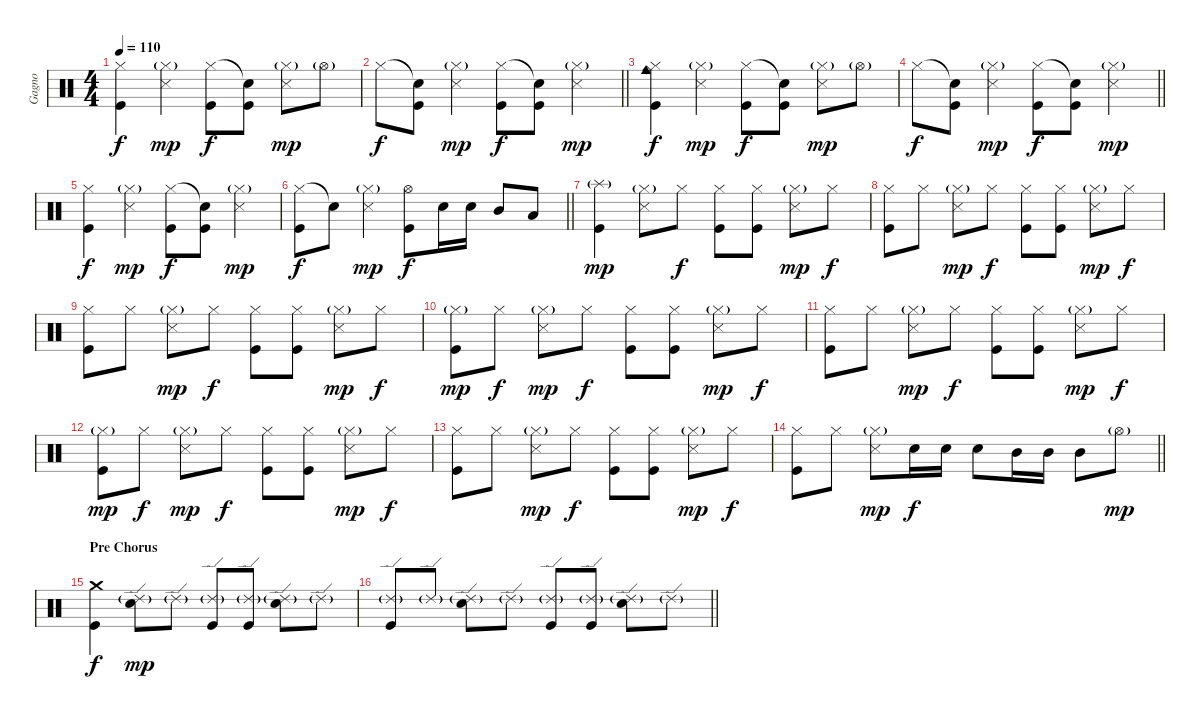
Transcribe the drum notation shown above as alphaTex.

\track ("Gagno" "Gagno") {instrument percussion}
\staff {score}
\articulation defaults
\ts (4 4)
\tempo 110
\clef neutral
\ks c
("Hi-Hat (closed)" "Kick (hit)").4{dy f} ("Hi-Hat (closed)"{g} "Snare (side stick) 3").4{dy mp} ("Hi-Hat (closed)" "Kick (hit)").8{dy f} ("Snare (hit)"{t} "Kick (hit)").8 ("Hi-Hat (closed)"{g} "Snare (side stick) 3").8{dy mp} "Hi-Hat (open)"{g}.8 |
\barLineRight lightlight "Hi-Hat (closed)".8{dy f}
("Snare (hit)"{t} "Kick (hit)").8 ("Hi-Hat (closed)"{g} "Snare (side stick) 3").4{dy mp} ("Hi-Hat (closed)" "Kick (hit)").8{dy f} ("Snare (hit)"{t} "Kick (hit)").8 ("Hi-Hat (closed)"{g} "Snare (side stick) 3").4{dy mp} |
("Hi-Hat (closed)" "Cowbell medium (hit)" "Ride (bell)" "Kick (hit)").4{dy f} ("Hi-Hat (closed)"{g} "Snare (side stick) 3").4{dy mp} ("Hi-Hat (closed)" "Kick (hit)").8{dy f} ("Snare (hit)"{t} "Kick (hit)").8 ("Hi-Hat (closed)"{g} "Snare (side stick) 3").8{dy mp} "Hi-Hat (open)"{g}.8 |
\barLineRight lightlight "Hi-Hat (closed)".8{dy f}
("Snare (hit)"{t} "Kick (hit)").8 ("Hi-Hat (closed)"{g} "Snare (side stick) 3").4{dy mp} ("Hi-Hat (closed)" "Kick (hit)").8{dy f} ("Snare (hit)"{t} "Kick (hit)").8 ("Hi-Hat (closed)"{g} "Snare (side stick) 3").4{dy mp} |
("Hi-Hat (closed)" "Kick (hit)").4{dy f} ("Hi-Hat (closed)"{g} "Snare (side stick) 3").4{dy mp} ("Hi-Hat (closed)" "Kick (hit)").8{dy f} ("Snare (hit)"{t} "Kick (hit)").8 ("Hi-Hat (closed)"{g} "Snare (side stick) 3").4{dy mp} |
\barLineRight lightlight
("Hi-Hat (closed)" "Kick (hit)").8{dy f} "Snare (hit)"{t}.8 ("Hi-Hat (closed)"{g} "Snare (side stick) 3").4{dy mp} ("Hi-Hat (open)" "Kick (hit)").8{dy f} "Snare (hit) 2".16 "Snare (hit) 2".16 "Mid Tom (hit)".8 "Low Tom (hit)".8 |
("Splash (hit)"{g} "Kick (hit)").4{dy mp} ("Hi-Hat (closed)"{g} "Snare (side stick) 3").8 "Hi-Hat (closed)".8{dy f} ("Hi-Hat (closed)" "Kick (hit)").8 ("Hi-Hat (closed)" "Kick (hit)").8 ("Hi-Hat (closed)"{g} "Snare (side stick) 3").8{dy mp} "Hi-Hat (closed)".8{dy f} |
("Hi-Hat (closed)" "Kick (hit)").8 "Hi-Hat (closed)".8 ("Hi-Hat (closed)"{g} "Snare (side stick) 3").8{dy mp} "Hi-Hat (closed)".8{dy f} ("Hi-Hat (closed)" "Kick (hit)").8 ("Hi-Hat (closed)" "Kick (hit)").8 ("Hi-Hat (closed)"{g} "Snare (side stick) 3").8{dy mp} "Hi-Hat (closed)".8{dy f} |
("Hi-Hat (closed)" "Kick (hit)").8 "Hi-Hat (closed)".8 ("Hi-Hat (closed)"{g} "Snare (side stick) 3").8{dy mp} "Hi-Hat (closed)".8{dy f} ("Hi-Hat (closed)" "Kick (hit)").8 ("Hi-Hat (closed)" "Kick (hit)").8 ("Hi-Hat (closed)"{g} "Snare (side stick) 3").8{dy mp} "Hi-Hat (closed)".8{dy f} |
("Hi-Hat (closed)"{g} "Kick (hit)").8{dy mp} "Hi-Hat (closed)".8{dy f} ("Hi-Hat (closed)"{g} "Snare (side stick) 3").8{dy mp} "Hi-Hat (closed)".8{dy f} ("Hi-Hat (closed)" "Kick (hit)").8 ("Hi-Hat (closed)" "Kick (hit)").8 ("Hi-Hat (closed)"{g} "Snare (side stick) 3").8{dy mp} "Hi-Hat (closed)".8{dy f} |
("Hi-Hat (closed)" "Kick (hit)").8 "Hi-Hat (closed)".8 ("Hi-Hat (closed)"{g} "Snare (side stick) 3").8{dy mp} "Hi-Hat (closed)".8{dy f} ("Hi-Hat (closed)" "Kick (hit)").8 ("Hi-Hat (closed)" "Kick (hit)").8 ("Hi-Hat (closed)"{g} "Snare (side stick) 3").8{dy mp} "Hi-Hat (closed)".8{dy f} |
("Hi-Hat (closed)"{g} "Kick (hit)").8{dy mp} "Hi-Hat (closed)".8{dy f} ("Hi-Hat (closed)"{g} "Snare (side stick) 3").8{dy mp} "Hi-Hat (closed)".8{dy f} ("Hi-Hat (closed)" "Kick (hit)").8 ("Hi-Hat (closed)" "Kick (hit)").8 ("Hi-Hat (closed)"{g} "Snare (side stick) 3").8{dy mp} "Hi-Hat (closed)".8{dy f} |
("Hi-Hat (closed)" "Kick (hit)").8 "Hi-Hat (closed)".8 ("Hi-Hat (closed)"{g} "Snare (side stick) 3").8{dy mp} "Hi-Hat (closed)".8{dy f} ("Hi-Hat (closed)" "Kick (hit)").8 ("Hi-Hat (closed)" "Kick (hit)").8 ("Hi-Hat (closed)"{g} "Snare (side stick) 3").8{dy mp} "Hi-Hat (closed)".8{dy f} |
\barLineRight lightlight
("Hi-Hat (closed)" "Kick (hit)").8 "Hi-Hat (closed)".8 ("Hi-Hat (closed)"{g} "Snare (side stick) 3").8{dy mp} "Snare (hit) 2".16{dy f} "Snare (hit) 2".16 "Snare (hit) 2".8 "Mid Tom (hit)".16 "Mid Tom (hit)".16 "Mid Tom (hit)".8 "Hi-Hat (open)"{g}.8{dy mp} |
\section ("" "Pre Chorus")
("Crash medium (hit)" "Kick (hit)").4{dy f} ("Ride (edge) 2"{g} "Snare (hit) 2").8{dy mp} "Ride (edge) 2"{g}.8 ("Ride (edge) 2"{g} "Kick (hit)").8 ("Ride (edge) 2"{g} "Kick (hit)").8 ("Ride (edge) 2"{g} "Snare (hit) 2").8 "Ride (edge) 2"{g}.8 |
\barLineRight lightlight
("Ride (edge) 2"{g} "Kick (hit)").8 "Ride (edge) 2"{g}.8 ("Ride (edge) 2"{g} "Snare (hit) 2").8 "Ride (edge) 2"{g}.8 ("Ride (edge) 2"{g} "Kick (hit)").8 ("Ride (edge) 2"{g} "Kick (hit)").8 ("Ride (edge) 2"{g} "Snare (hit) 2").8 "Ride (edge) 2"{g}.8
